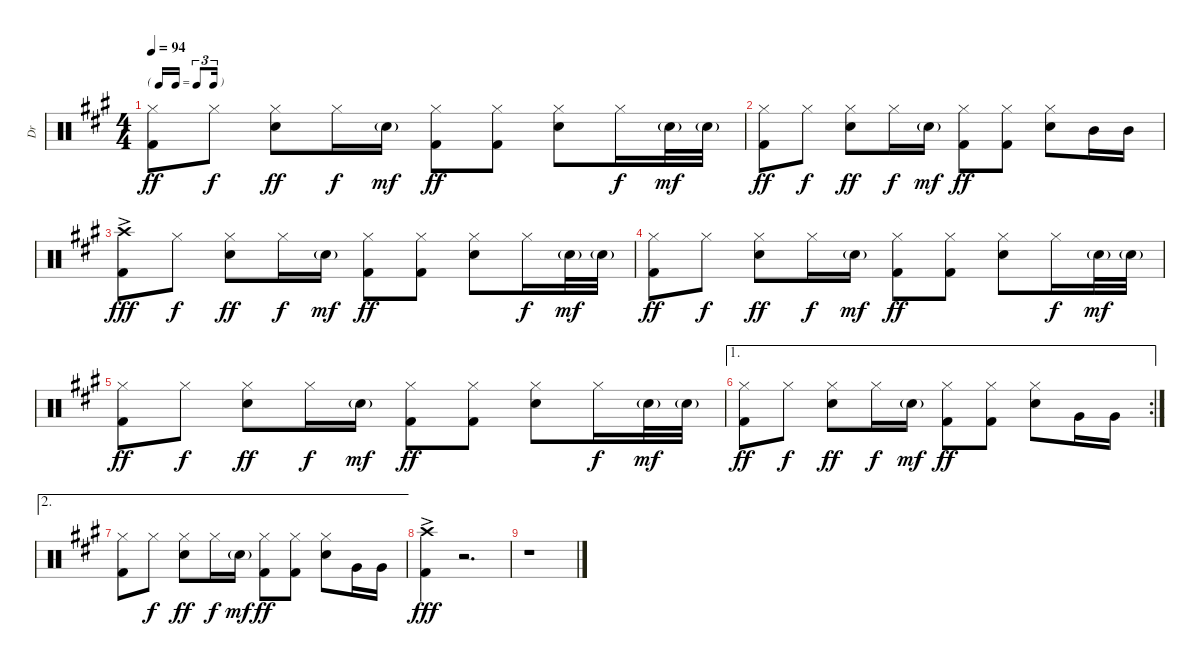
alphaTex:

\track ("Dr" "Dr") {instrument percussion}
\staff {score}
\articulation defaults
\ts (4 4)
\tf triplet16th
\tempo 94
\clef neutral
\ks a
("Hi-Hat (closed)" "Kick (hit) 2").8{dy ff} "Hi-Hat (closed)".8{dy f} ("Hi-Hat (closed)" "Electric Snare (hit)").8{dy ff} "Hi-Hat (closed)".16{dy f} "Electric Snare (hit)"{g}.16{dy mf} ("Hi-Hat (closed)" "Kick (hit) 2").8{dy ff} ("Hi-Hat (closed)" "Kick (hit) 2").8 ("Hi-Hat (closed)" "Electric Snare (hit)").8 "Hi-Hat (closed)".16{dy f} "Electric Snare (hit)"{g}.32{dy mf} "Electric Snare (hit)"{g}.32 |
("Hi-Hat (closed)" "Kick (hit) 2").8{dy ff} "Hi-Hat (closed)".8{dy f} ("Hi-Hat (closed)" "Electric Snare (hit)").8{dy ff} "Hi-Hat (closed)".16{dy f} "Electric Snare (hit)"{g}.16{dy mf} ("Hi-Hat (closed)" "Kick (hit) 2").8{dy ff} ("Hi-Hat (closed)" "Kick (hit) 2").8 ("Hi-Hat (closed)" "Electric Snare (hit)").8 "Mid Tom (hit)".16 "Mid Tom (hit)".16 |
("Crash high (hit)"{ac} "Kick (hit) 2"{ac}).8{dy fff} "Hi-Hat (closed)".8{dy f} ("Hi-Hat (closed)" "Electric Snare (hit)").8{dy ff} "Hi-Hat (closed)".16{dy f} "Electric Snare (hit)"{g}.16{dy mf} ("Hi-Hat (closed)" "Kick (hit) 2").8{dy ff} ("Hi-Hat (closed)" "Kick (hit) 2").8 ("Hi-Hat (closed)" "Electric Snare (hit)").8 "Hi-Hat (closed)".16{dy f} "Electric Snare (hit)"{g}.32{dy mf} "Electric Snare (hit)"{g}.32 |
("Hi-Hat (closed)" "Kick (hit) 2").8{dy ff} "Hi-Hat (closed)".8{dy f} ("Hi-Hat (closed)" "Electric Snare (hit)").8{dy ff} "Hi-Hat (closed)".16{dy f} "Electric Snare (hit)"{g}.16{dy mf} ("Hi-Hat (closed)" "Kick (hit) 2").8{dy ff} ("Hi-Hat (closed)" "Kick (hit) 2").8 ("Hi-Hat (closed)" "Electric Snare (hit)").8 "Hi-Hat (closed)".16{dy f} "Electric Snare (hit)"{g}.32{dy mf} "Electric Snare (hit)"{g}.32 |
("Hi-Hat (closed)" "Kick (hit) 2").8{dy ff} "Hi-Hat (closed)".8{dy f} ("Hi-Hat (closed)" "Electric Snare (hit)").8{dy ff} "Hi-Hat (closed)".16{dy f} "Electric Snare (hit)"{g}.16{dy mf} ("Hi-Hat (closed)" "Kick (hit) 2").8{dy ff} ("Hi-Hat (closed)" "Kick (hit) 2").8 ("Hi-Hat (closed)" "Electric Snare (hit)").8 "Hi-Hat (closed)".16{dy f} "Electric Snare (hit)"{g}.32{dy mf} "Electric Snare (hit)"{g}.32 |
\ae 1
\rc 2
("Hi-Hat (closed)" "Kick (hit) 2").8{dy ff} "Hi-Hat (closed)".8{dy f} ("Hi-Hat (closed)" "Electric Snare (hit)").8{dy ff} "Hi-Hat (closed)".16{dy f} "Electric Snare (hit)"{g}.16{dy mf} ("Hi-Hat (closed)" "Kick (hit) 2").8{dy ff} ("Hi-Hat (closed)" "Kick (hit) 2").8 ("Hi-Hat (closed)" "Electric Snare (hit)").8 "Very Low Tom (hit)".16 "Very Low Tom (hit)".16 |
\ae 2
("Hi-Hat (closed)" "Kick (hit) 2").8 "Hi-Hat (closed)".8{dy f} ("Hi-Hat (closed)" "Electric Snare (hit)").8{dy ff} "Hi-Hat (closed)".16{dy f} "Electric Snare (hit)"{g}.16{dy mf} ("Hi-Hat (closed)" "Kick (hit) 2").8{dy ff} ("Hi-Hat (closed)" "Kick (hit) 2").8 ("Hi-Hat (closed)" "Electric Snare (hit)").8 "Very Low Tom (hit)".16 "Very Low Tom (hit)".16 |
("Crash high (hit)"{ac} "Kick (hit) 2"{ac}).4{dy fff} r.2{d} |
r.1
